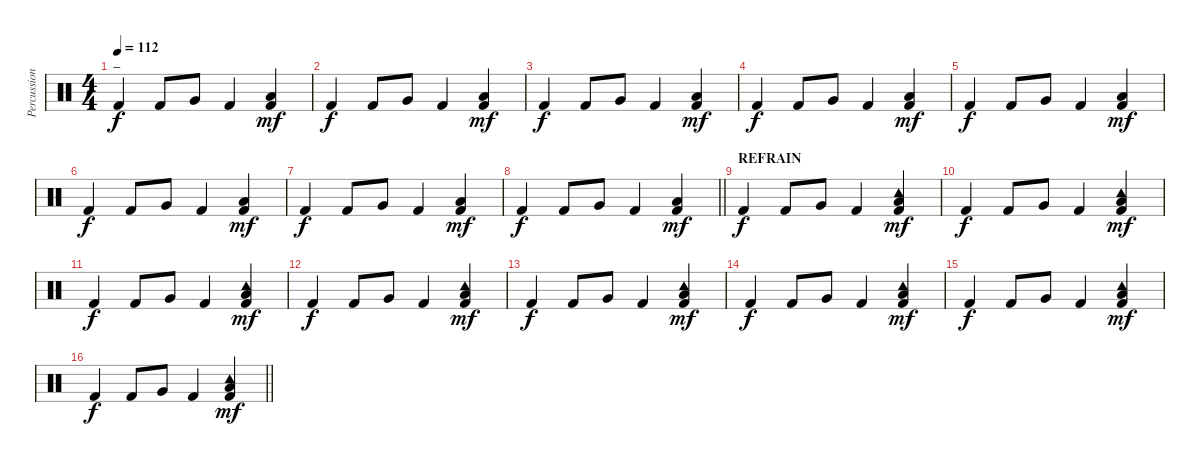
\track ("Percussion" "Percussion") {instrument percussion}
\staff {score}
\articulation defaults
\ts (4 4)
\section ("" "_")
\tempo 112
\clef neutral
\ks c "Kick (hit) 2".4{dy f} "Kick (hit) 2".8 "Very Low Tom (hit)".8 "Kick (hit) 2".4
("Kick (hit) 2" "Low Floor Tom (hit)").4{dy mf} |
"Kick (hit) 2".4{dy f} "Kick (hit) 2".8 "Very Low Tom (hit)".8 "Kick (hit) 2".4 ("Kick (hit) 2" "Low Floor Tom (hit)").4{dy mf} |
"Kick (hit) 2".4{dy f} "Kick (hit) 2".8 "Very Low Tom (hit)".8 "Kick (hit) 2".4 ("Kick (hit) 2" "Low Floor Tom (hit)").4{dy mf} |
"Kick (hit) 2".4{dy f} "Kick (hit) 2".8 "Very Low Tom (hit)".8 "Kick (hit) 2".4 ("Kick (hit) 2" "Low Floor Tom (hit)").4{dy mf} |
"Kick (hit) 2".4{dy f} "Kick (hit) 2".8 "Very Low Tom (hit)".8 "Kick (hit) 2".4 ("Kick (hit) 2" "Low Floor Tom (hit)").4{dy mf} |
"Kick (hit) 2".4{dy f} "Kick (hit) 2".8 "Very Low Tom (hit)".8 "Kick (hit) 2".4 ("Kick (hit) 2" "Low Floor Tom (hit)").4{dy mf} |
"Kick (hit) 2".4{dy f} "Kick (hit) 2".8 "Very Low Tom (hit)".8 "Kick (hit) 2".4 ("Kick (hit) 2" "Low Floor Tom (hit)").4{dy mf} |
\barLineRight lightlight "Kick (hit) 2".4{dy f} "Kick (hit) 2".8 "Very Low Tom (hit)".8 "Kick (hit) 2".4
("Kick (hit) 2" "Low Floor Tom (hit)").4{dy mf} |
\section ("" "REFRAIN")
"Kick (hit) 2".4{dy f} "Kick (hit) 2".8 "Very Low Tom (hit)".8 "Kick (hit) 2".4 ("Kick (hit) 2" "Low Floor Tom (hit)" "Tambourine (hit)").4{dy mf} |
"Kick (hit) 2".4{dy f} "Kick (hit) 2".8 "Very Low Tom (hit)".8 "Kick (hit) 2".4 ("Kick (hit) 2" "Low Floor Tom (hit)" "Tambourine (hit)").4{dy mf} |
"Kick (hit) 2".4{dy f} "Kick (hit) 2".8 "Very Low Tom (hit)".8 "Kick (hit) 2".4 ("Kick (hit) 2" "Low Floor Tom (hit)" "Tambourine (hit)").4{dy mf} |
"Kick (hit) 2".4{dy f} "Kick (hit) 2".8 "Very Low Tom (hit)".8 "Kick (hit) 2".4 ("Kick (hit) 2" "Low Floor Tom (hit)" "Tambourine (hit)").4{dy mf} |
"Kick (hit) 2".4{dy f} "Kick (hit) 2".8 "Very Low Tom (hit)".8 "Kick (hit) 2".4 ("Kick (hit) 2" "Low Floor Tom (hit)" "Tambourine (hit)").4{dy mf} |
"Kick (hit) 2".4{dy f} "Kick (hit) 2".8 "Very Low Tom (hit)".8 "Kick (hit) 2".4 ("Kick (hit) 2" "Low Floor Tom (hit)" "Tambourine (hit)").4{dy mf} |
"Kick (hit) 2".4{dy f} "Kick (hit) 2".8 "Very Low Tom (hit)".8 "Kick (hit) 2".4 ("Kick (hit) 2" "Low Floor Tom (hit)" "Tambourine (hit)").4{dy mf} |
\barLineRight lightlight "Kick (hit) 2".4{dy f} "Kick (hit) 2".8 "Very Low Tom (hit)".8 "Kick (hit) 2".4
("Kick (hit) 2" "Low Floor Tom (hit)" "Tambourine (hit)").4{dy mf}
